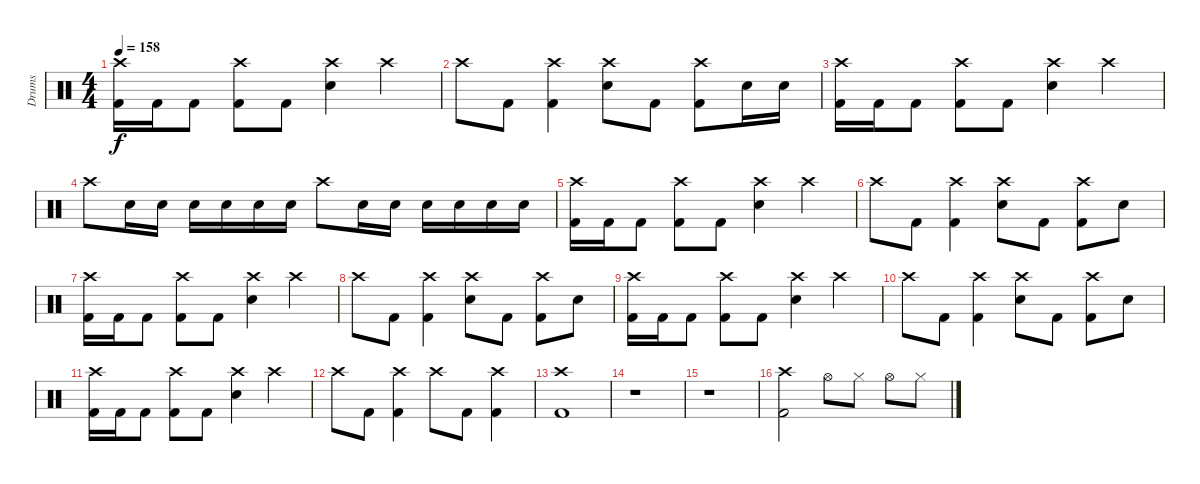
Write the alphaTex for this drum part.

\track ("Drums" "Drums") {instrument percussion}
\staff {score}
\articulation defaults
\ts (4 4)
\tempo 158
\clef neutral
\ks c
("Crash high (hit)" "Kick (hit) 2").16{dy f} "Kick (hit) 2".16 "Kick (hit) 2".8 ("Crash high (hit)" "Kick (hit) 2").8 "Kick (hit) 2".8 ("Crash high (hit)" "Electric Snare (hit)").4 "Crash high (hit)".4 |
"Crash high (hit)".8 "Kick (hit) 2".8 ("Crash high (hit)" "Kick (hit) 2").4 ("Crash high (hit)" "Electric Snare (hit)").8 "Kick (hit) 2".8 ("Crash high (hit)" "Kick (hit) 2").8 "Electric Snare (hit)".16 "Electric Snare (hit)".16 |
("Crash high (hit)" "Kick (hit) 2").16 "Kick (hit) 2".16 "Kick (hit) 2".8 ("Crash high (hit)" "Kick (hit) 2").8 "Kick (hit) 2".8 ("Crash high (hit)" "Electric Snare (hit)").4 "Crash high (hit)".4 |
"Crash high (hit)".8 "Electric Snare (hit)".16 "Electric Snare (hit)".16 "Electric Snare (hit)".16 "Electric Snare (hit)".16 "Electric Snare (hit)".16 "Electric Snare (hit)".16 "Crash high (hit)".8 "Electric Snare (hit)".16 "Electric Snare (hit)".16 "Electric Snare (hit)".16 "Electric Snare (hit)".16 "Electric Snare (hit)".16 "Electric Snare (hit)".16 |
("Crash high (hit)" "Kick (hit) 2").16 "Kick (hit) 2".16 "Kick (hit) 2".8 ("Crash high (hit)" "Kick (hit) 2").8 "Kick (hit) 2".8 ("Crash high (hit)" "Electric Snare (hit)").4 "Crash high (hit)".4 |
"Crash high (hit)".8 "Kick (hit) 2".8 ("Crash high (hit)" "Kick (hit) 2").4 ("Crash high (hit)" "Electric Snare (hit)").8 "Kick (hit) 2".8 ("Crash high (hit)" "Kick (hit) 2").8 "Electric Snare (hit)".8 |
("Crash high (hit)" "Kick (hit) 2").16 "Kick (hit) 2".16 "Kick (hit) 2".8 ("Crash high (hit)" "Kick (hit) 2").8 "Kick (hit) 2".8 ("Crash high (hit)" "Electric Snare (hit)").4 "Crash high (hit)".4 |
"Crash high (hit)".8 "Kick (hit) 2".8 ("Crash high (hit)" "Kick (hit) 2").4 ("Crash high (hit)" "Electric Snare (hit)").8 "Kick (hit) 2".8 ("Crash high (hit)" "Kick (hit) 2").8 "Electric Snare (hit)".8 |
("Crash high (hit)" "Kick (hit) 2").16 "Kick (hit) 2".16 "Kick (hit) 2".8 ("Crash high (hit)" "Kick (hit) 2").8 "Kick (hit) 2".8 ("Crash high (hit)" "Electric Snare (hit)").4 "Crash high (hit)".4 |
"Crash high (hit)".8 "Kick (hit) 2".8 ("Crash high (hit)" "Kick (hit) 2").4 ("Crash high (hit)" "Electric Snare (hit)").8 "Kick (hit) 2".8 ("Crash high (hit)" "Kick (hit) 2").8 "Electric Snare (hit)".8 |
("Crash high (hit)" "Kick (hit) 2").16 "Kick (hit) 2".16 "Kick (hit) 2".8 ("Crash high (hit)" "Kick (hit) 2").8 "Kick (hit) 2".8 ("Crash high (hit)" "Electric Snare (hit)").4 "Crash high (hit)".4 |
"Crash high (hit)".8 "Kick (hit) 2".8 ("Crash high (hit)" "Kick (hit) 2").4 "Crash high (hit)".8 "Kick (hit) 2".8 ("Crash high (hit)" "Kick (hit) 2").4 |
("Crash high (hit)" "Kick (hit) 2").1 |
r.1 |
r.1 |
("Crash high (hit)" "Kick (hit) 2").2 "Hi-Hat (open)".8 "Hi-Hat (closed)".8 "Hi-Hat (open)".8 "Hi-Hat (closed)".8
